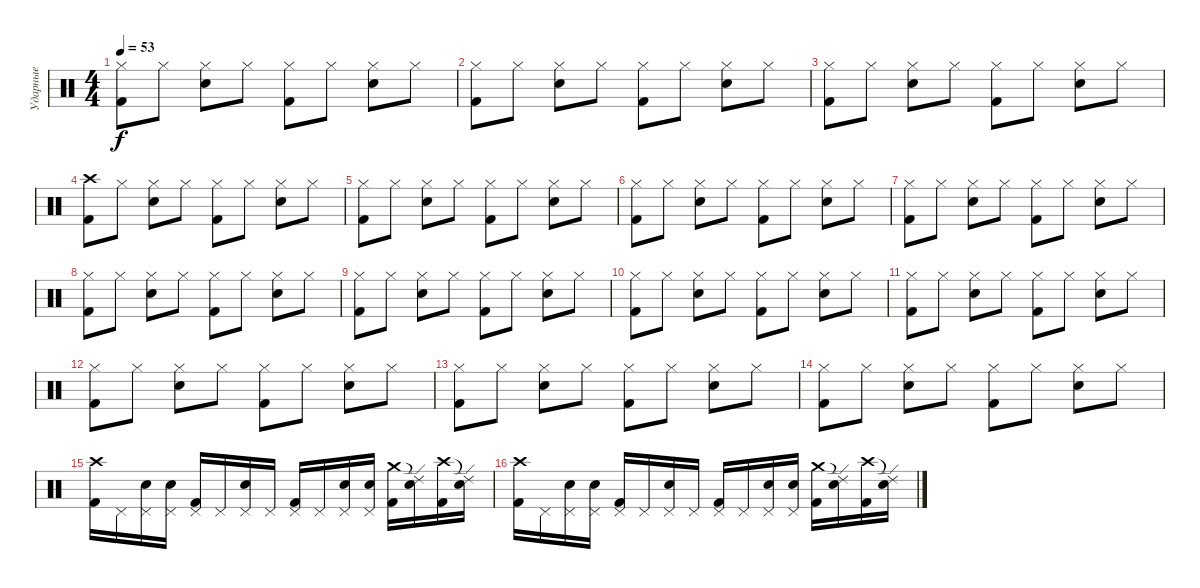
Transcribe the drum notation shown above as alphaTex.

\track ("Ударные" "Ударные") {instrument percussion}
\staff {score}
\articulation defaults
\ts (4 4)
\tempo 53
\clef neutral
\ks c
("Hi-Hat (closed)" "Kick (hit) 2").8{dy f} "Hi-Hat (closed)".8 ("Hi-Hat (closed)" "Snare (hit) 2").8 "Hi-Hat (closed)".8 ("Hi-Hat (closed)" "Kick (hit) 2").8 "Hi-Hat (closed)".8 ("Hi-Hat (closed)" "Snare (hit) 2").8 "Hi-Hat (closed)".8 |
("Hi-Hat (closed)" "Kick (hit) 2").8 "Hi-Hat (closed)".8 ("Hi-Hat (closed)" "Snare (hit) 2").8 "Hi-Hat (closed)".8 ("Hi-Hat (closed)" "Kick (hit) 2").8 "Hi-Hat (closed)".8 ("Hi-Hat (closed)" "Snare (hit) 2").8 "Hi-Hat (closed)".8 |
("Hi-Hat (closed)" "Kick (hit) 2").8 "Hi-Hat (closed)".8 ("Hi-Hat (closed)" "Snare (hit) 2").8 "Hi-Hat (closed)".8 ("Hi-Hat (closed)" "Kick (hit) 2").8 "Hi-Hat (closed)".8 ("Hi-Hat (closed)" "Snare (hit) 2").8 "Hi-Hat (closed)".8 |
("Crash high (hit)" "Kick (hit) 2").8 "Hi-Hat (closed)".8 ("Hi-Hat (closed)" "Snare (hit) 2").8 "Hi-Hat (closed)".8 ("Hi-Hat (closed)" "Kick (hit) 2").8 "Hi-Hat (closed)".8 ("Hi-Hat (closed)" "Snare (hit) 2").8 "Hi-Hat (closed)".8 |
("Hi-Hat (closed)" "Kick (hit) 2").8 "Hi-Hat (closed)".8 ("Hi-Hat (closed)" "Snare (hit) 2").8 "Hi-Hat (closed)".8 ("Hi-Hat (closed)" "Kick (hit) 2").8 "Hi-Hat (closed)".8 ("Hi-Hat (closed)" "Snare (hit) 2").8 "Hi-Hat (closed)".8 |
("Hi-Hat (closed)" "Kick (hit) 2").8 "Hi-Hat (closed)".8 ("Hi-Hat (closed)" "Snare (hit) 2").8 "Hi-Hat (closed)".8 ("Hi-Hat (closed)" "Kick (hit) 2").8 "Hi-Hat (closed)".8 ("Hi-Hat (closed)" "Snare (hit) 2").8 "Hi-Hat (closed)".8 |
("Hi-Hat (closed)" "Kick (hit) 2").8 "Hi-Hat (closed)".8 ("Hi-Hat (closed)" "Snare (hit) 2").8 "Hi-Hat (closed)".8 ("Hi-Hat (closed)" "Kick (hit) 2").8 "Hi-Hat (closed)".8 ("Hi-Hat (closed)" "Snare (hit) 2").8 "Hi-Hat (closed)".8 |
("Hi-Hat (closed)" "Kick (hit) 2").8 "Hi-Hat (closed)".8 ("Hi-Hat (closed)" "Snare (hit) 2").8 "Hi-Hat (closed)".8 ("Hi-Hat (closed)" "Kick (hit) 2").8 "Hi-Hat (closed)".8 ("Hi-Hat (closed)" "Snare (hit) 2").8 "Hi-Hat (closed)".8 |
("Hi-Hat (closed)" "Kick (hit) 2").8 "Hi-Hat (closed)".8 ("Hi-Hat (closed)" "Snare (hit) 2").8 "Hi-Hat (closed)".8 ("Hi-Hat (closed)" "Kick (hit) 2").8 "Hi-Hat (closed)".8 ("Hi-Hat (closed)" "Snare (hit) 2").8 "Hi-Hat (closed)".8 |
("Hi-Hat (closed)" "Kick (hit) 2").8 "Hi-Hat (closed)".8 ("Hi-Hat (closed)" "Snare (hit) 2").8 "Hi-Hat (closed)".8 ("Hi-Hat (closed)" "Kick (hit) 2").8 "Hi-Hat (closed)".8 ("Hi-Hat (closed)" "Snare (hit) 2").8 "Hi-Hat (closed)".8 |
("Hi-Hat (closed)" "Kick (hit) 2").8 "Hi-Hat (closed)".8 ("Hi-Hat (closed)" "Snare (hit) 2").8 "Hi-Hat (closed)".8 ("Hi-Hat (closed)" "Kick (hit) 2").8 "Hi-Hat (closed)".8 ("Hi-Hat (closed)" "Snare (hit) 2").8 "Hi-Hat (closed)".8 |
("Hi-Hat (closed)" "Kick (hit) 2").8 "Hi-Hat (closed)".8 ("Hi-Hat (closed)" "Snare (hit) 2").8 "Hi-Hat (closed)".8 ("Hi-Hat (closed)" "Kick (hit) 2").8 "Hi-Hat (closed)".8 ("Hi-Hat (closed)" "Snare (hit) 2").8 "Hi-Hat (closed)".8 |
("Hi-Hat (closed)" "Kick (hit) 2").8 "Hi-Hat (closed)".8 ("Hi-Hat (closed)" "Snare (hit) 2").8 "Hi-Hat (closed)".8 ("Hi-Hat (closed)" "Kick (hit) 2").8 "Hi-Hat (closed)".8 ("Hi-Hat (closed)" "Snare (hit) 2").8 "Hi-Hat (closed)".8 |
("Hi-Hat (closed)" "Kick (hit) 2").8 "Hi-Hat (closed)".8 ("Hi-Hat (closed)" "Snare (hit) 2").8 "Hi-Hat (closed)".8 ("Hi-Hat (closed)" "Kick (hit) 2").8 "Hi-Hat (closed)".8 ("Hi-Hat (closed)" "Snare (hit) 2").8 "Hi-Hat (closed)".8 |
("Crash high (hit)" "Kick (hit) 2").16 "Pedal Hi-Hat (hit)".16 ("Pedal Hi-Hat (hit)" "Snare (hit) 2").16 ("Pedal Hi-Hat (hit)" "Snare (hit) 2").16 ("Pedal Hi-Hat (hit)" "Kick (hit) 2").16 "Pedal Hi-Hat (hit)".16 ("Pedal Hi-Hat (hit)" "Snare (hit) 2").16 "Pedal Hi-Hat (hit)".16 ("Pedal Hi-Hat (hit)" "Kick (hit) 2").16 "Pedal Hi-Hat (hit)".16 ("Pedal Hi-Hat (hit)" "Snare (hit) 2").16 ("Pedal Hi-Hat (hit)" "Snare (hit) 2").16 ("Crash medium (hit)" "Kick (hit) 2").16 ("Ride (edge) 2"{t} "Snare (hit) 2").16 ("Crash high (hit)" "Kick (hit) 2").16 ("Ride (edge) 2"{t} "Snare (hit) 2").16 |
("Crash high (hit)" "Kick (hit) 2").16 "Pedal Hi-Hat (hit)".16 ("Pedal Hi-Hat (hit)" "Snare (hit) 2").16 ("Pedal Hi-Hat (hit)" "Snare (hit) 2").16 ("Pedal Hi-Hat (hit)" "Kick (hit) 2").16 "Pedal Hi-Hat (hit)".16 ("Pedal Hi-Hat (hit)" "Snare (hit) 2").16 "Pedal Hi-Hat (hit)".16 ("Pedal Hi-Hat (hit)" "Kick (hit) 2").16 "Pedal Hi-Hat (hit)".16 ("Pedal Hi-Hat (hit)" "Snare (hit) 2").16 ("Pedal Hi-Hat (hit)" "Snare (hit) 2").16 ("Crash medium (hit)" "Kick (hit) 2").16 ("Ride (edge) 2"{t} "Snare (hit) 2").16 ("Crash high (hit)" "Kick (hit) 2").16 ("Ride (edge) 2"{t} "Snare (hit) 2").16
